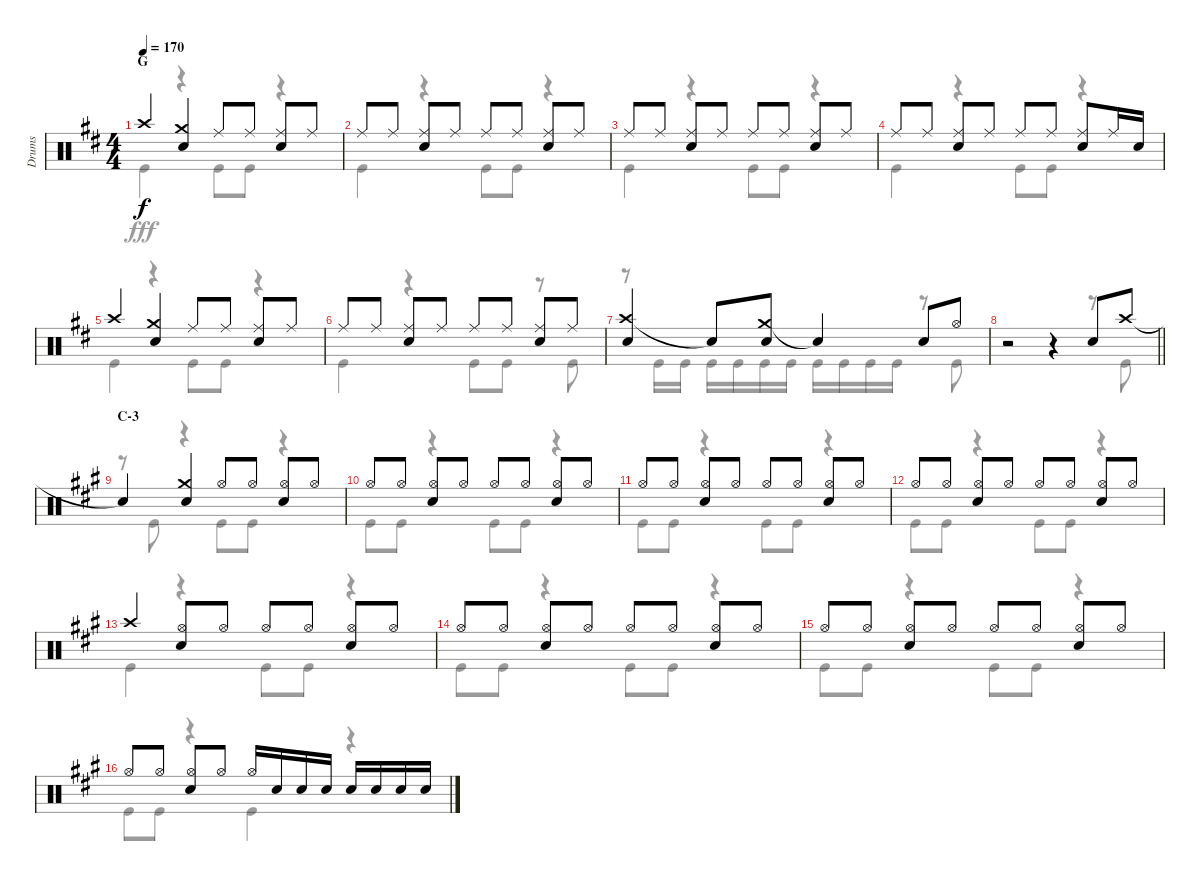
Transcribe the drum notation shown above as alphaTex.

\track ("Drums" "Drums") {instrument percussion}
\staff {score}
\articulation defaults
\voice
\ts (4 4)
\section ("" "G")
\tempo 170
\clef neutral
\ks d "Crash high (hit)".4{dy f}
("Crash medium (hit)" "Snare (hit) 2").4 "Ride (middle)".8 "Ride (middle)".8 ("Ride (middle)" "Snare (hit) 2").8 "Ride (middle)".8 |
"Ride (middle)".8 "Ride (middle)".8 ("Ride (middle)" "Snare (hit) 2").8 "Ride (middle)".8 "Ride (middle)".8 "Ride (middle)".8 ("Ride (middle)" "Snare (hit) 2").8 "Ride (middle)".8 |
"Ride (middle)".8 "Ride (middle)".8 ("Ride (middle)" "Snare (hit) 2").8 "Ride (middle)".8 "Ride (middle)".8 "Ride (middle)".8 ("Ride (middle)" "Snare (hit) 2").8 "Ride (middle)".8 |
"Ride (middle)".8 "Ride (middle)".8 ("Ride (middle)" "Snare (hit) 2").8 "Ride (middle)".8 "Ride (middle)".8 "Ride (middle)".8 ("Ride (middle)" "Snare (hit) 2").8 "Ride (middle)".16 "Snare (hit) 2".16 |
"Crash high (hit)".4 ("Crash medium (hit)" "Snare (hit) 2").4 "Ride (middle)".8 "Ride (middle)".8 ("Ride (middle)" "Snare (hit) 2").8 "Ride (middle)".8 |
"Ride (middle)".8 "Ride (middle)".8 ("Ride (middle)" "Snare (hit) 2").8 "Ride (middle)".8 "Ride (middle)".8 "Ride (middle)".8 ("Ride (middle)" "Snare (hit) 2").8 "Ride (middle)".8 |
("Crash high (hit)" "Snare (hit) 2").4 "Snare (hit)"{t}.8 ("Crash medium (hit)" "Snare (hit) 2").8 "Snare (hit)"{t}.4 "Snare (hit) 2".8 "Hi-Hat (open)".8 |
\barLineRight lightlight
r.2 r.4 "Snare (hit) 2".8 "Crash high (hit)".8 |
\section ("" "C-3")
\ks a "Snare (hit)"{t}.4
("Crash medium (hit)" "Snare (hit) 2").4 "Hi-Hat (open)".8 "Hi-Hat (open)".8 ("Hi-Hat (open)" "Snare (hit) 2").8 "Hi-Hat (open)".8 |
"Hi-Hat (open)".8 "Hi-Hat (open)".8 ("Hi-Hat (open)" "Snare (hit) 2").8 "Hi-Hat (open)".8 "Hi-Hat (open)".8 "Hi-Hat (open)".8 ("Hi-Hat (open)" "Snare (hit) 2").8 "Hi-Hat (open)".8 |
"Hi-Hat (open)".8 "Hi-Hat (open)".8 ("Hi-Hat (open)" "Snare (hit) 2").8 "Hi-Hat (open)".8 "Hi-Hat (open)".8 "Hi-Hat (open)".8 ("Hi-Hat (open)" "Snare (hit) 2").8 "Hi-Hat (open)".8 |
"Hi-Hat (open)".8 "Hi-Hat (open)".8 ("Hi-Hat (open)" "Snare (hit) 2").8 "Hi-Hat (open)".8 "Hi-Hat (open)".8 "Hi-Hat (open)".8 ("Hi-Hat (open)" "Snare (hit) 2").8 "Hi-Hat (open)".8 |
"Crash high (hit)".4 ("Hi-Hat (open)" "Snare (hit) 2").8 "Hi-Hat (open)".8 "Hi-Hat (open)".8 "Hi-Hat (open)".8 ("Hi-Hat (open)" "Snare (hit) 2").8 "Hi-Hat (open)".8 |
"Hi-Hat (open)".8 "Hi-Hat (open)".8 ("Hi-Hat (open)" "Snare (hit) 2").8 "Hi-Hat (open)".8 "Hi-Hat (open)".8 "Hi-Hat (open)".8 ("Hi-Hat (open)" "Snare (hit) 2").8 "Hi-Hat (open)".8 |
"Hi-Hat (open)".8 "Hi-Hat (open)".8 ("Hi-Hat (open)" "Snare (hit) 2").8 "Hi-Hat (open)".8 "Hi-Hat (open)".8 "Hi-Hat (open)".8 ("Hi-Hat (open)" "Snare (hit) 2").8 "Hi-Hat (open)".8 |
"Hi-Hat (open)".8 "Hi-Hat (open)".8 ("Hi-Hat (open)" "Snare (hit) 2").8 "Hi-Hat (open)".8 "Hi-Hat (open)".16 "Snare (hit) 2".16 "Snare (hit) 2".16 "Snare (hit) 2".16 "Snare (hit) 2".16 "Snare (hit) 2".16 "Snare (hit) 2".16 "Snare (hit) 2".16
\voice
\clef neutral
\ottava regular
\simile none
\ks d "Kick (hit)".4{dy fff}
r.4 "Kick (hit)".8 "Kick (hit)".8 r.4 |
"Kick (hit)".4 r.4 "Kick (hit)".8 "Kick (hit)".8 r.4 |
"Kick (hit)".4 r.4 "Kick (hit)".8 "Kick (hit)".8 r.4 |
"Kick (hit)".4 r.4 "Kick (hit)".8 "Kick (hit)".8 r.4 |
"Kick (hit)".4 r.4 "Kick (hit)".8 "Kick (hit)".8 r.4 |
"Kick (hit)".4 r.4 "Kick (hit)".8 "Kick (hit)".8 r.8 "Kick (hit)".8 |
r.8 "Kick (hit)".16 "Kick (hit)".16 "Kick (hit)".16 "Kick (hit)".16 "Kick (hit)".16 "Kick (hit)".16 "Kick (hit)".16 "Kick (hit)".16 "Kick (hit)".16 "Kick (hit)".16 r.8 "Kick (hit)".8 |
\barLineRight lightlight
r.2 r.4 r.8 "Kick (hit)".8 |
\ks a
r.8 "Kick (hit)".8 r.4 "Kick (hit)".8 "Kick (hit)".8 r.4 |
"Kick (hit)".8 "Kick (hit)".8 r.4 "Kick (hit)".8 "Kick (hit)".8 r.4 |
"Kick (hit)".8 "Kick (hit)".8 r.4 "Kick (hit)".8 "Kick (hit)".8 r.4 |
"Kick (hit)".8 "Kick (hit)".8 r.4 "Kick (hit)".8 "Kick (hit)".8 r.4 |
"Kick (hit)".4 r.4 "Kick (hit)".8 "Kick (hit)".8 r.4 |
"Kick (hit)".8 "Kick (hit)".8 r.4 "Kick (hit)".8 "Kick (hit)".8 r.4 |
"Kick (hit)".8 "Kick (hit)".8 r.4 "Kick (hit)".8 "Kick (hit)".8 r.4 |
"Kick (hit)".8 "Kick (hit)".8 r.4 "Kick (hit)".4 r.4
